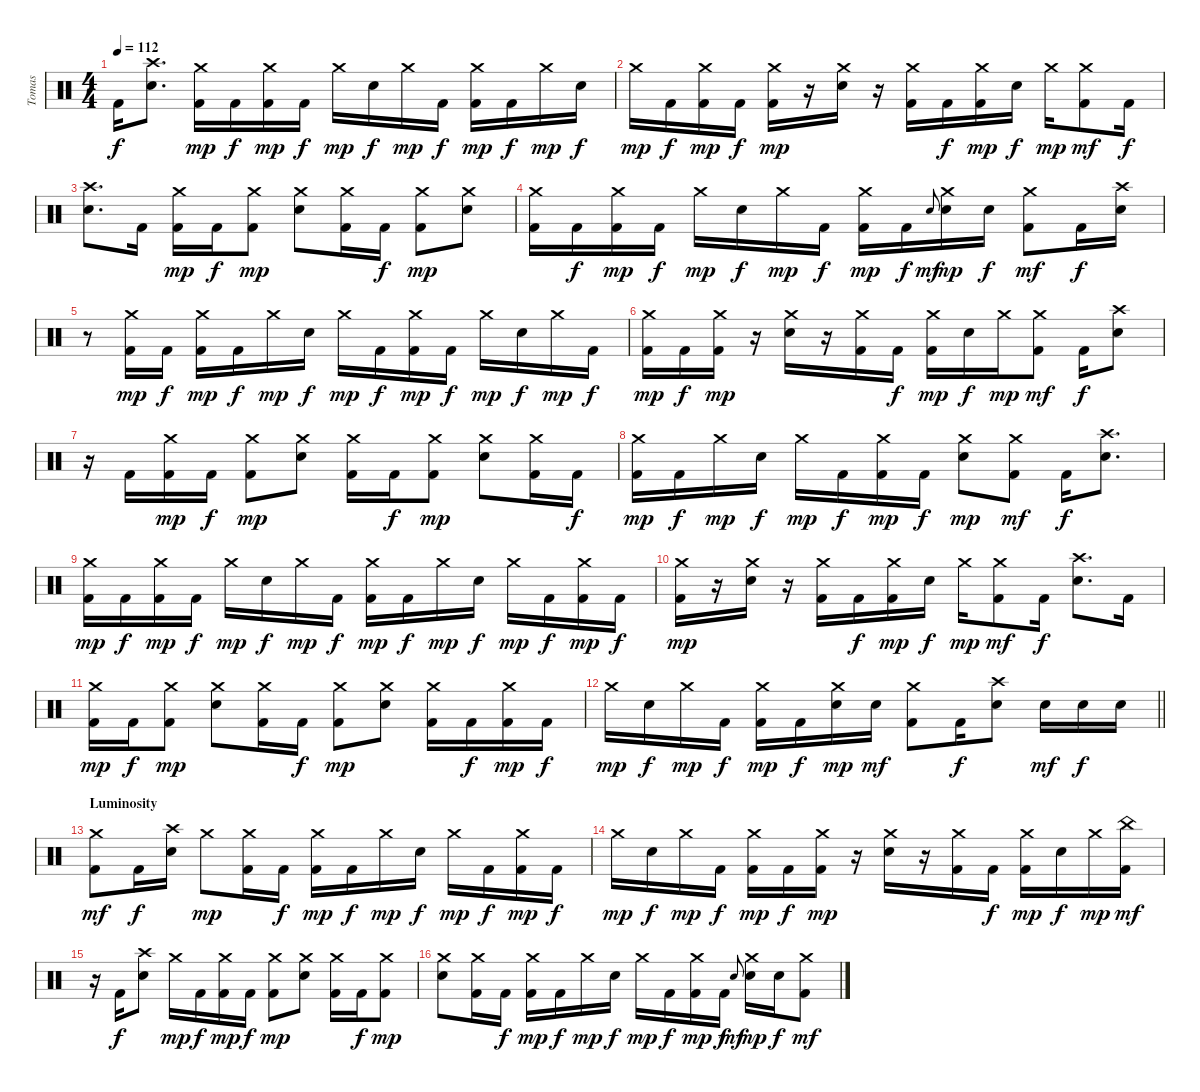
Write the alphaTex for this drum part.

\track ("Tomas" "Tomas") {instrument percussion}
\staff {score}
\articulation defaults
\ts (4 4)
\tempo 112
\clef neutral
\ks c "Kick (hit) 2".16{dy f}
("Crash high (hit)" "Electric Snare (hit)").8{d} ("Crash medium (hit)" "Kick (hit) 2").16{dy mp} "Kick (hit) 2".16{dy f} ("Crash medium (hit)" "Kick (hit) 2").16{dy mp} "Kick (hit) 2".16{dy f} "Crash medium (hit)".16{dy mp} "Electric Snare (hit)".16{dy f} "Crash medium (hit)".16{dy mp} "Kick (hit) 2".16{dy f} ("Crash medium (hit)" "Kick (hit) 2").16{dy mp} "Kick (hit) 2".16{dy f} "Crash medium (hit)".16{dy mp} "Electric Snare (hit)".16{dy f} |
"Crash medium (hit)".16{dy mp} "Kick (hit) 2".16{dy f} ("Crash medium (hit)" "Kick (hit) 2").16{dy mp} "Kick (hit) 2".16{dy f} ("Crash medium (hit)" "Kick (hit) 2").16{dy mp} r.16 ("Crash medium (hit)" "Electric Snare (hit)").16 r.16 ("Crash medium (hit)" "Kick (hit) 2").16 "Kick (hit) 2".16{dy f} ("Crash medium (hit)" "Kick (hit) 2").16{dy mp} "Electric Snare (hit)".16{dy f} "Crash medium (hit)".16{dy mp} ("Crash medium (hit)" "Kick (hit) 2").8{dy mf} "Kick (hit) 2".16{dy f} |
("Crash high (hit)" "Electric Snare (hit)").8{d} "Kick (hit) 2".16 ("Crash medium (hit)" "Kick (hit) 2").16{dy mp} "Kick (hit) 2".16{dy f} ("Crash medium (hit)" "Kick (hit) 2").8{dy mp} ("Crash medium (hit)" "Electric Snare (hit)").8 ("Crash medium (hit)" "Kick (hit) 2").16 "Kick (hit) 2".16{dy f} ("Crash medium (hit)" "Kick (hit) 2").8{dy mp} ("Crash medium (hit)" "Electric Snare (hit)").8 |
("Crash medium (hit)" "Kick (hit) 2").16 "Kick (hit) 2".16{dy f} ("Crash medium (hit)" "Kick (hit) 2").16{dy mp} "Kick (hit) 2".16{dy f} "Crash medium (hit)".16{dy mp} "Electric Snare (hit)".16{dy f} "Crash medium (hit)".16{dy mp} "Kick (hit) 2".16{dy f} ("Crash medium (hit)" "Kick (hit) 2").16{dy mp} "Kick (hit) 2".16{dy f} "Electric Snare (hit)".8{gr onbeat dy mf} ("Crash medium (hit)" "Electric Snare (hit)").16{dy mp} "Electric Snare (hit)".16{dy f} ("Crash medium (hit)" "Kick (hit) 2").8{dy mf} "Kick (hit) 2".16{dy f} ("Crash high (hit)" "Electric Snare (hit)").16 |
r.8 ("Crash medium (hit)" "Kick (hit) 2").16{dy mp} "Kick (hit) 2".16{dy f} ("Crash medium (hit)" "Kick (hit) 2").16{dy mp} "Kick (hit) 2".16{dy f} "Crash medium (hit)".16{dy mp} "Electric Snare (hit)".16{dy f} "Crash medium (hit)".16{dy mp} "Kick (hit) 2".16{dy f} ("Crash medium (hit)" "Kick (hit) 2").16{dy mp} "Kick (hit) 2".16{dy f} "Crash medium (hit)".16{dy mp} "Electric Snare (hit)".16{dy f} "Crash medium (hit)".16{dy mp} "Kick (hit) 2".16{dy f} |
("Crash medium (hit)" "Kick (hit) 2").16{dy mp} "Kick (hit) 2".16{dy f} ("Crash medium (hit)" "Kick (hit) 2").16{dy mp} r.16 ("Crash medium (hit)" "Electric Snare (hit)").16 r.16 ("Crash medium (hit)" "Kick (hit) 2").16 "Kick (hit) 2".16{dy f} ("Crash medium (hit)" "Kick (hit) 2").16{dy mp} "Electric Snare (hit)".16{dy f} "Crash medium (hit)".16{dy mp} ("Crash medium (hit)" "Kick (hit) 2").8{dy mf} "Kick (hit) 2".16{dy f} ("Crash high (hit)" "Electric Snare (hit)").8 |
r.16 "Kick (hit) 2".16 ("Crash medium (hit)" "Kick (hit) 2").16{dy mp} "Kick (hit) 2".16{dy f} ("Crash medium (hit)" "Kick (hit) 2").8{dy mp} ("Crash medium (hit)" "Electric Snare (hit)").8 ("Crash medium (hit)" "Kick (hit) 2").16 "Kick (hit) 2".16{dy f} ("Crash medium (hit)" "Kick (hit) 2").8{dy mp} ("Crash medium (hit)" "Electric Snare (hit)").8 ("Crash medium (hit)" "Kick (hit) 2").16 "Kick (hit) 2".16{dy f} |
("Crash medium (hit)" "Kick (hit) 2").16{dy mp} "Kick (hit) 2".16{dy f} "Crash medium (hit)".16{dy mp} "Electric Snare (hit)".16{dy f} "Crash medium (hit)".16{dy mp} "Kick (hit) 2".16{dy f} ("Crash medium (hit)" "Kick (hit) 2").16{dy mp} "Kick (hit) 2".16{dy f} ("Crash medium (hit)" "Electric Snare (hit)").8{dy mp} ("Crash medium (hit)" "Kick (hit) 2").8{dy mf} "Kick (hit) 2".16{dy f} ("Crash high (hit)" "Electric Snare (hit)").8{d} |
("Crash medium (hit)" "Kick (hit) 2").16{dy mp} "Kick (hit) 2".16{dy f} ("Crash medium (hit)" "Kick (hit) 2").16{dy mp} "Kick (hit) 2".16{dy f} "Crash medium (hit)".16{dy mp} "Electric Snare (hit)".16{dy f} "Crash medium (hit)".16{dy mp} "Kick (hit) 2".16{dy f} ("Crash medium (hit)" "Kick (hit) 2").16{dy mp} "Kick (hit) 2".16{dy f} "Crash medium (hit)".16{dy mp} "Electric Snare (hit)".16{dy f} "Crash medium (hit)".16{dy mp} "Kick (hit) 2".16{dy f} ("Crash medium (hit)" "Kick (hit) 2").16{dy mp} "Kick (hit) 2".16{dy f} |
("Crash medium (hit)" "Kick (hit) 2").16{dy mp} r.16 ("Crash medium (hit)" "Electric Snare (hit)").16 r.16 ("Crash medium (hit)" "Kick (hit) 2").16 "Kick (hit) 2".16{dy f} ("Crash medium (hit)" "Kick (hit) 2").16{dy mp} "Electric Snare (hit)".16{dy f} "Crash medium (hit)".16{dy mp} ("Crash medium (hit)" "Kick (hit) 2").8{dy mf} "Kick (hit) 2".16{dy f} ("Crash high (hit)" "Electric Snare (hit)").8{d} "Kick (hit) 2".16 |
("Crash medium (hit)" "Kick (hit) 2").16{dy mp} "Kick (hit) 2".16{dy f} ("Crash medium (hit)" "Kick (hit) 2").8{dy mp} ("Crash medium (hit)" "Electric Snare (hit)").8 ("Crash medium (hit)" "Kick (hit) 2").16 "Kick (hit) 2".16{dy f} ("Crash medium (hit)" "Kick (hit) 2").8{dy mp} ("Crash medium (hit)" "Electric Snare (hit)").8 ("Crash medium (hit)" "Kick (hit) 2").16 "Kick (hit) 2".16{dy f} ("Crash medium (hit)" "Kick (hit) 2").16{dy mp} "Kick (hit) 2".16{dy f} |
\barLineRight lightlight "Crash medium (hit)".16{dy mp} "Electric Snare (hit)".16{dy f} "Crash medium (hit)".16{dy mp} "Kick (hit) 2".16{dy f}
("Crash medium (hit)" "Kick (hit) 2").16{dy mp} "Kick (hit) 2".16{dy f} ("Crash medium (hit)" "Electric Snare (hit)").16{dy mp} "Electric Snare (hit)".16{dy mf} ("Crash medium (hit)" "Kick (hit) 2").8 "Kick (hit) 2".16{dy f} ("Crash high (hit)" "Electric Snare (hit)").8 "Electric Snare (hit)".16{dy mf} "Electric Snare (hit)".16{dy f} "Electric Snare (hit)".16 |
\section ("" "Luminosity")
("Crash medium (hit)" "Kick (hit) 2").8{dy mf} "Kick (hit) 2".16{dy f} ("Crash high (hit)" "Electric Snare (hit)").16 "Crash medium (hit)".8{dy mp} ("Crash medium (hit)" "Kick (hit) 2").16 "Kick (hit) 2".16{dy f} ("Crash medium (hit)" "Kick (hit) 2").16{dy mp} "Kick (hit) 2".16{dy f} "Crash medium (hit)".16{dy mp} "Electric Snare (hit)".16{dy f} "Crash medium (hit)".16{dy mp} "Kick (hit) 2".16{dy f} ("Crash medium (hit)" "Kick (hit) 2").16{dy mp} "Kick (hit) 2".16{dy f} |
"Crash medium (hit)".16{dy mp} "Electric Snare (hit)".16{dy f} "Crash medium (hit)".16{dy mp} "Kick (hit) 2".16{dy f} ("Crash medium (hit)" "Kick (hit) 2").16{dy mp} "Kick (hit) 2".16{dy f} ("Crash medium (hit)" "Kick (hit) 2").16{dy mp} r.16 ("Crash medium (hit)" "Electric Snare (hit)").16 r.16 ("Crash medium (hit)" "Kick (hit) 2").16 "Kick (hit) 2".16{dy f} ("Crash medium (hit)" "Kick (hit) 2").16{dy mp} "Electric Snare (hit)".16{dy f} "Crash medium (hit)".16{dy mp} ("China (hit)" "Kick (hit) 2").16{dy mf} |
r.16 "Kick (hit) 2".16{dy f} ("Crash high (hit)" "Electric Snare (hit)").8 "Crash medium (hit)".16{dy mp} "Kick (hit) 2".16{dy f} ("Crash medium (hit)" "Kick (hit) 2").16{dy mp} "Kick (hit) 2".16{dy f} ("Crash medium (hit)" "Kick (hit) 2").8{dy mp} ("Crash medium (hit)" "Electric Snare (hit)").8 ("Crash medium (hit)" "Kick (hit) 2").16 "Kick (hit) 2".16{dy f} ("Crash medium (hit)" "Kick (hit) 2").8{dy mp} |
("Crash medium (hit)" "Electric Snare (hit)").8 ("Crash medium (hit)" "Kick (hit) 2").16 "Kick (hit) 2".16{dy f} ("Crash medium (hit)" "Kick (hit) 2").16{dy mp} "Kick (hit) 2".16{dy f} "Crash medium (hit)".16{dy mp} "Electric Snare (hit)".16{dy f} "Crash medium (hit)".16{dy mp} "Kick (hit) 2".16{dy f} ("Crash medium (hit)" "Kick (hit) 2").16{dy mp} "Kick (hit) 2".16{dy f} "Electric Snare (hit)".8{gr onbeat dy mf} ("Crash medium (hit)" "Electric Snare (hit)").16{dy mp} "Electric Snare (hit)".16{dy f} ("Crash medium (hit)" "Kick (hit) 2").8{dy mf}
